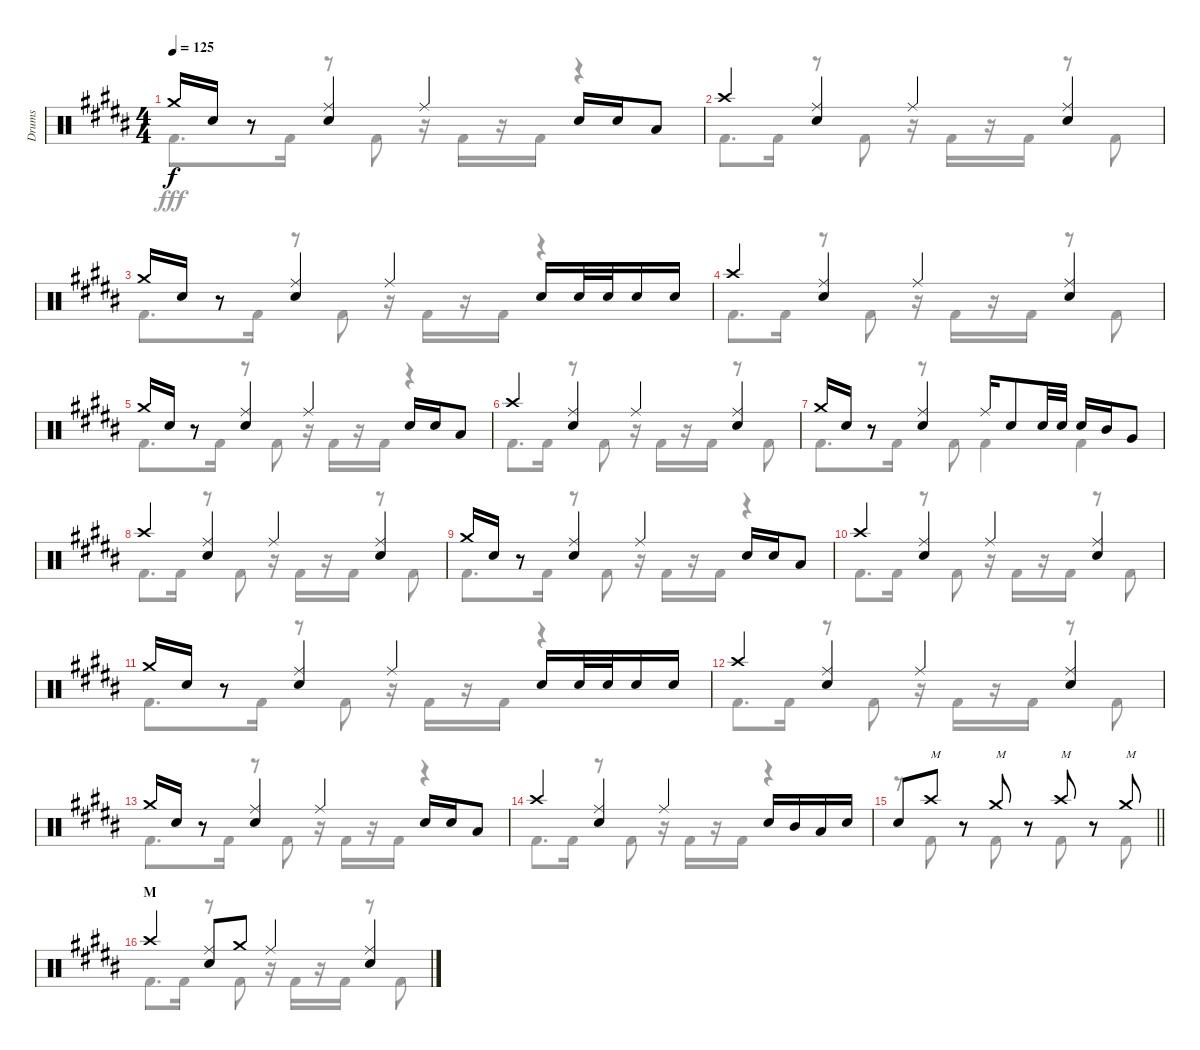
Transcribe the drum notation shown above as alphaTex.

\track ("Drums" "Drums") {instrument percussion}
\staff {score}
\articulation defaults
\voice
\ts (4 4)
\tempo 125
\clef neutral
\ks b "Crash medium (hit)".16{dy f} "Snare (hit) 2".16
r.8 ("Ride (middle)" "Snare (hit) 2").4 "Ride (middle)".4 "Snare (hit) 2".16 "Snare (hit) 2".16 "Low Tom (hit)".8 |
"Crash high (hit)".4 ("Ride (middle)" "Snare (hit) 2").4 "Ride (middle)".4 ("Ride (middle)" "Snare (hit) 2").4 |
"Crash medium (hit)".16 "Snare (hit) 2".16 r.8 ("Ride (middle)" "Snare (hit) 2").4 "Ride (middle)".4 "Snare (hit) 2".16 "Snare (hit) 2".32 "Snare (hit) 2".32 "Snare (hit) 2".16 "Snare (hit) 2".16 |
"Crash high (hit)".4 ("Ride (middle)" "Snare (hit) 2").4 "Ride (middle)".4 ("Ride (middle)" "Snare (hit) 2").4 |
"Crash medium (hit)".16 "Snare (hit) 2".16 r.8 ("Ride (middle)" "Snare (hit) 2").4 "Ride (middle)".4 "Snare (hit) 2".16 "Snare (hit) 2".16 "Low Tom (hit)".8 |
"Crash high (hit)".4 ("Ride (middle)" "Snare (hit) 2").4 "Ride (middle)".4 ("Ride (middle)" "Snare (hit) 2").4 |
"Crash medium (hit)".16 "Snare (hit) 2".16 r.8 ("Ride (middle)" "Snare (hit) 2").4 "Ride (middle)".16 "Snare (hit) 2".8 "Snare (hit) 2".32 "Snare (hit) 2".32 "Snare (hit) 2".16 "Mid Tom (hit)".16 "Very Low Tom (hit)".8 |
"Crash high (hit)".4 ("Ride (middle)" "Snare (hit) 2").4 "Ride (middle)".4 ("Ride (middle)" "Snare (hit) 2").4 |
"Crash medium (hit)".16 "Snare (hit) 2".16 r.8 ("Ride (middle)" "Snare (hit) 2").4 "Ride (middle)".4 "Snare (hit) 2".16 "Snare (hit) 2".16 "Low Tom (hit)".8 |
"Crash high (hit)".4 ("Ride (middle)" "Snare (hit) 2").4 "Ride (middle)".4 ("Ride (middle)" "Snare (hit) 2").4 |
"Crash medium (hit)".16 "Snare (hit) 2".16 r.8 ("Ride (middle)" "Snare (hit) 2").4 "Ride (middle)".4 "Snare (hit) 2".16 "Snare (hit) 2".32 "Snare (hit) 2".32 "Snare (hit) 2".16 "Snare (hit) 2".16 |
"Crash high (hit)".4 ("Ride (middle)" "Snare (hit) 2").4 "Ride (middle)".4 ("Ride (middle)" "Snare (hit) 2").4 |
"Crash medium (hit)".16 "Snare (hit) 2".16 r.8 ("Ride (middle)" "Snare (hit) 2").4 "Ride (middle)".4 "Snare (hit) 2".16 "Snare (hit) 2".16 "Low Tom (hit)".8 |
"Crash high (hit)".4 ("Ride (middle)" "Snare (hit) 2").4 "Ride (middle)".4 "Snare (hit) 2".16 "Mid Tom (hit)".16 "Low Tom (hit)".16 "Snare (hit) 2".16 |
\barLineRight lightlight "Snare (hit) 2".8 "Crash high (hit)".8{txt "M"}
r.8 "Crash medium (hit)".8{txt "M"} r.8 "Crash high (hit)".8{txt "M"} r.8 "Crash medium (hit)".8{txt "M"} |
\section ("" "M")
"Crash high (hit)".4 ("Ride (middle)" "Snare (hit) 2").8 "Crash medium (hit)".8 "Ride (middle)".4 ("Ride (middle)" "Snare (hit) 2").4
\voice
\clef neutral
\ottava regular
\simile none
\ks b "Kick (hit) 2".8{d dy fff} "Kick (hit) 2".16
r.8 "Kick (hit) 2".8 r.16 "Kick (hit) 2".16 r.16 "Kick (hit) 2".16 r.4 |
"Kick (hit) 2".8{d} "Kick (hit) 2".16 r.8 "Kick (hit) 2".8 r.16 "Kick (hit) 2".16 r.16 "Kick (hit) 2".16 r.8 "Kick (hit) 2".8 |
"Kick (hit) 2".8{d} "Kick (hit) 2".16 r.8 "Kick (hit) 2".8 r.16 "Kick (hit) 2".16 r.16 "Kick (hit) 2".16 r.4 |
"Kick (hit) 2".8{d} "Kick (hit) 2".16 r.8 "Kick (hit) 2".8 r.16 "Kick (hit) 2".16 r.16 "Kick (hit) 2".16 r.8 "Kick (hit) 2".8 |
"Kick (hit) 2".8{d} "Kick (hit) 2".16 r.8 "Kick (hit) 2".8 r.16 "Kick (hit) 2".16 r.16 "Kick (hit) 2".16 r.4 |
"Kick (hit) 2".8{d} "Kick (hit) 2".16 r.8 "Kick (hit) 2".8 r.16 "Kick (hit) 2".16 r.16 "Kick (hit) 2".16 r.8 "Kick (hit) 2".8 |
"Kick (hit) 2".8{d} "Kick (hit) 2".16 r.8 "Kick (hit) 2".8 "Kick (hit) 2".4 "Kick (hit) 2".4 |
"Kick (hit) 2".8{d} "Kick (hit) 2".16 r.8 "Kick (hit) 2".8 r.16 "Kick (hit) 2".16 r.16 "Kick (hit) 2".16 r.8 "Kick (hit) 2".8 |
"Kick (hit) 2".8{d} "Kick (hit) 2".16 r.8 "Kick (hit) 2".8 r.16 "Kick (hit) 2".16 r.16 "Kick (hit) 2".16 r.4 |
"Kick (hit) 2".8{d} "Kick (hit) 2".16 r.8 "Kick (hit) 2".8 r.16 "Kick (hit) 2".16 r.16 "Kick (hit) 2".16 r.8 "Kick (hit) 2".8 |
"Kick (hit) 2".8{d} "Kick (hit) 2".16 r.8 "Kick (hit) 2".8 r.16 "Kick (hit) 2".16 r.16 "Kick (hit) 2".16 r.4 |
"Kick (hit) 2".8{d} "Kick (hit) 2".16 r.8 "Kick (hit) 2".8 r.16 "Kick (hit) 2".16 r.16 "Kick (hit) 2".16 r.8 "Kick (hit) 2".8 |
"Kick (hit) 2".8{d} "Kick (hit) 2".16 r.8 "Kick (hit) 2".8 r.16 "Kick (hit) 2".16 r.16 "Kick (hit) 2".16 r.4 |
"Kick (hit) 2".8{d} "Kick (hit) 2".16 r.8 "Kick (hit) 2".8 r.16 "Kick (hit) 2".16 r.16 "Kick (hit) 2".16 r.4 |
\barLineRight lightlight
r.8 "Kick (hit) 2".8 r.8 "Kick (hit) 2".8 r.8 "Kick (hit) 2".8 r.8 "Kick (hit) 2".8 |
"Kick (hit) 2".8{d} "Kick (hit) 2".16 r.8 "Kick (hit) 2".8 r.16 "Kick (hit) 2".16 r.16 "Kick (hit) 2".16 r.8 "Kick (hit) 2".8
